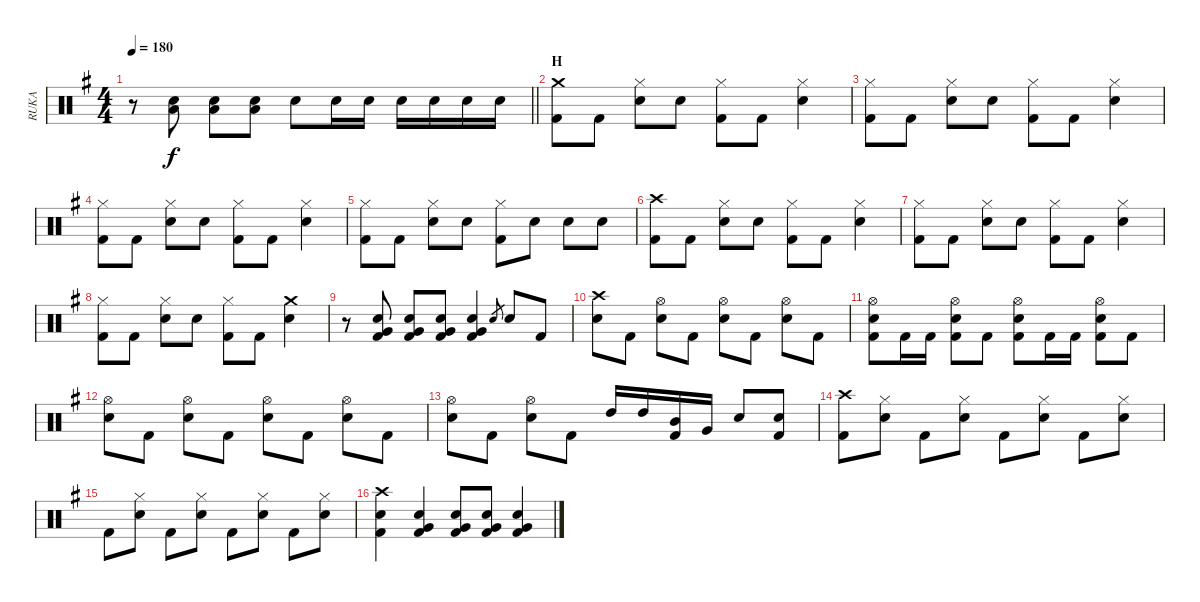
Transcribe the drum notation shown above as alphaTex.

\track ("RUKA" "RUKA") {instrument percussion}
\staff {score}
\articulation defaults
\ts (4 4)
\tempo 180
\clef neutral
\barLineRight lightlight
\ks g
r.8{dy f} ("Snare (hit) 2" "Low Floor Tom (hit)").8 ("Snare (hit) 2" "Low Floor Tom (hit)").8 ("Snare (hit) 2" "Low Floor Tom (hit)").8 "Snare (hit) 2".8 "Snare (hit) 2".16 "Snare (hit) 2".16 "Snare (hit) 2".16 "Snare (hit) 2".16 "Snare (hit) 2".16 "Snare (hit) 2".16 |
\section ("" "H")
("Crash medium (hit)" "Kick (hit) 2").8 "Kick (hit) 2".8 ("Hi-Hat (closed)" "Snare (hit) 2").8 "Snare (hit) 2".8 ("Hi-Hat (closed)" "Kick (hit) 2").8 "Kick (hit) 2".8 ("Hi-Hat (closed)" "Snare (hit) 2").4 |
("Hi-Hat (closed)" "Kick (hit) 2").8 "Kick (hit) 2".8 ("Hi-Hat (closed)" "Snare (hit) 2").8 "Snare (hit) 2".8 ("Hi-Hat (closed)" "Kick (hit) 2").8 "Kick (hit) 2".8 ("Hi-Hat (closed)" "Snare (hit) 2").4 |
("Hi-Hat (closed)" "Kick (hit) 2").8 "Kick (hit) 2".8 ("Hi-Hat (closed)" "Snare (hit) 2").8 "Snare (hit) 2".8 ("Hi-Hat (closed)" "Kick (hit) 2").8 "Kick (hit) 2".8 ("Hi-Hat (closed)" "Snare (hit) 2").4 |
("Hi-Hat (closed)" "Kick (hit) 2").8 "Kick (hit) 2".8 ("Hi-Hat (closed)" "Snare (hit) 2").8 "Snare (hit) 2".8 ("Hi-Hat (closed)" "Kick (hit) 2").8 "Snare (hit) 2".8 "Snare (hit) 2".8 "Snare (hit) 2".8 |
("Crash high (hit)" "Kick (hit) 2").8 "Kick (hit) 2".8 ("Hi-Hat (closed)" "Snare (hit) 2").8 "Snare (hit) 2".8 ("Hi-Hat (closed)" "Kick (hit) 2").8 "Kick (hit) 2".8 ("Hi-Hat (closed)" "Snare (hit) 2").4 |
("Hi-Hat (closed)" "Kick (hit) 2").8 "Kick (hit) 2".8 ("Hi-Hat (closed)" "Snare (hit) 2").8 "Snare (hit) 2".8 ("Hi-Hat (closed)" "Kick (hit) 2").8 "Kick (hit) 2".8 ("Hi-Hat (closed)" "Snare (hit) 2").4 |
("Hi-Hat (closed)" "Kick (hit) 2").8 "Kick (hit) 2".8 ("Hi-Hat (closed)" "Snare (hit) 2").8 "Snare (hit) 2".8 ("Hi-Hat (closed)" "Kick (hit) 2").8 "Kick (hit) 2".8 ("Crash medium (hit)" "Snare (hit) 2").4 |
r.8 ("Snare (hit) 2" "Very Low Tom (hit)" "Kick (hit) 2").8 ("Snare (hit) 2" "Very Low Tom (hit)" "Kick (hit) 2").8 ("Snare (hit) 2" "Very Low Tom (hit)" "Kick (hit) 2").8 ("Snare (hit) 2" "Very Low Tom (hit)" "Kick (hit) 2").4 "Snare (hit) 2".8{gr} "Snare (hit) 2".8 "Kick (hit) 2".8 |
("Crash high (hit)" "Snare (hit) 2").8 "Kick (hit) 2".8 ("Hi-Hat (open)" "Snare (hit) 2").8 "Kick (hit) 2".8 ("Hi-Hat (open)" "Snare (hit) 2").8 "Kick (hit) 2".8 ("Hi-Hat (open)" "Snare (hit) 2").8 "Kick (hit) 2".8 |
("Hi-Hat (open)" "Snare (hit) 2" "Kick (hit) 2").8 "Kick (hit) 2".16 "Kick (hit) 2".16 ("Hi-Hat (open)" "Snare (hit) 2" "Kick (hit) 2").8 "Kick (hit) 2".8 ("Hi-Hat (open)" "Snare (hit) 2" "Kick (hit) 2").8 "Kick (hit) 2".16 "Kick (hit) 2".16 ("Hi-Hat (open)" "Snare (hit) 2" "Kick (hit) 2").8 "Kick (hit) 2".8 |
("Hi-Hat (open)" "Snare (hit) 2").8 "Kick (hit) 2".8 ("Hi-Hat (open)" "Snare (hit) 2").8 "Kick (hit) 2".8 ("Hi-Hat (open)" "Snare (hit) 2").8 "Kick (hit) 2".8 ("Hi-Hat (open)" "Snare (hit) 2").8 "Kick (hit) 2".8 |
("Hi-Hat (open)" "Snare (hit) 2").8 "Kick (hit) 2".8 ("Hi-Hat (open)" "Snare (hit) 2").8 "Kick (hit) 2".8 "High Tom (hit)".16 "High Tom (hit)".16 ("Mid Tom (hit)" "Kick (hit) 2").16 "Very Low Tom (hit)".16 "Snare (hit) 2".8 ("Snare (hit) 2" "Kick (hit) 2").8 |
("Crash high (hit)" "Kick (hit) 2").8 ("Hi-Hat (closed)" "Snare (hit) 2").8 "Kick (hit) 2".8 ("Hi-Hat (closed)" "Snare (hit) 2").8 "Kick (hit) 2".8 ("Hi-Hat (closed)" "Snare (hit) 2").8 "Kick (hit) 2".8 ("Hi-Hat (closed)" "Snare (hit) 2").8 |
"Kick (hit) 2".8 ("Hi-Hat (closed)" "Snare (hit) 2").8 "Kick (hit) 2".8 ("Hi-Hat (closed)" "Snare (hit) 2").8 "Kick (hit) 2".8 ("Hi-Hat (closed)" "Snare (hit) 2").8 "Kick (hit) 2".8 ("Hi-Hat (closed)" "Snare (hit) 2").8 |
("Crash high (hit)" "Snare (hit) 2" "Kick (hit) 2").4 ("Snare (hit) 2" "Very Low Tom (hit)" "Kick (hit) 2").4 ("Snare (hit) 2" "Very Low Tom (hit)" "Kick (hit) 2").8 ("Snare (hit) 2" "Very Low Tom (hit)" "Kick (hit) 2").8 ("Snare (hit) 2" "Very Low Tom (hit)" "Kick (hit) 2").4
